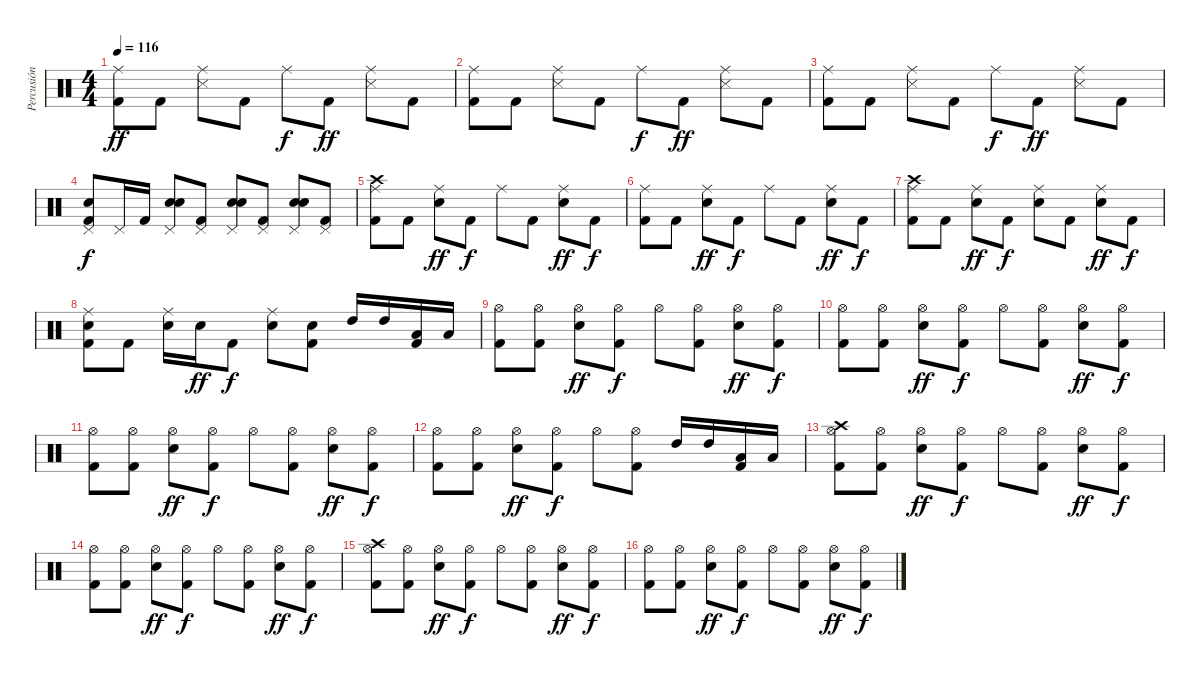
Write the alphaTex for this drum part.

\track ("Percusión" "Percusión") {instrument percussion}
\staff {score}
\articulation defaults
\ts (4 4)
\tempo 116
\clef neutral
\ks c
("Ride (middle)" "Kick (hit) 2").8{dy ff} "Kick (hit) 2".8 ("Ride (middle)" "Snare (side stick) 3").8 "Kick (hit) 2".8 "Ride (middle)".8{dy f} "Kick (hit) 2".8{dy ff} ("Ride (middle)" "Snare (side stick) 3").8 "Kick (hit) 2".8 |
("Ride (middle)" "Kick (hit) 2").8 "Kick (hit) 2".8 ("Ride (middle)" "Snare (side stick) 3").8 "Kick (hit) 2".8 "Ride (middle)".8{dy f} "Kick (hit) 2".8{dy ff} ("Ride (middle)" "Snare (side stick) 3").8 "Kick (hit) 2".8 |
("Ride (middle)" "Kick (hit) 2").8 "Kick (hit) 2".8 ("Ride (middle)" "Snare (side stick) 3").8 "Kick (hit) 2".8 "Ride (middle)".8{dy f} "Kick (hit) 2".8{dy ff} ("Ride (middle)" "Snare (side stick) 3").8 "Kick (hit) 2".8 |
("Hand Clap (hit)" "Pedal Hi-Hat (hit)" "Kick (hit) 2").8{dy f} "Pedal Hi-Hat (hit)".16 "Kick (hit) 2".16 ("Hand Clap (hit)" "Pedal Hi-Hat (hit)" "Snare (hit) 2").8 ("Pedal Hi-Hat (hit)" "Kick (hit) 2").8 ("Hand Clap (hit)" "Pedal Hi-Hat (hit)" "Snare (hit) 2").8 ("Pedal Hi-Hat (hit)" "Kick (hit) 2").8 ("Hand Clap (hit)" "Pedal Hi-Hat (hit)" "Snare (hit) 2").8 ("Pedal Hi-Hat (hit)" "Kick (hit) 2").8 |
("Crash high (hit)" "Ride (middle)" "Kick (hit) 2").8 "Kick (hit) 2".8 ("Ride (middle)" "Snare (hit) 2").8{dy ff} "Kick (hit) 2".8{dy f} "Ride (middle)".8 "Kick (hit) 2".8 ("Ride (middle)" "Snare (hit) 2").8{dy ff} "Kick (hit) 2".8{dy f} |
("Ride (middle)" "Kick (hit) 2").8 "Kick (hit) 2".8 ("Ride (middle)" "Snare (hit) 2").8{dy ff} "Kick (hit) 2".8{dy f} "Ride (middle)".8 "Kick (hit) 2".8 ("Ride (middle)" "Snare (hit) 2").8{dy ff} "Kick (hit) 2".8{dy f} |
("Crash high (hit)" "Ride (middle)" "Kick (hit) 2").8 "Kick (hit) 2".8 ("Ride (middle)" "Snare (hit) 2").8{dy ff} "Kick (hit) 2".8{dy f} ("Ride (middle)" "Snare (hit) 2").8 "Kick (hit) 2".8 ("Ride (middle)" "Snare (hit) 2").8{dy ff} "Kick (hit) 2".8{dy f} |
("Ride (middle)" "Snare (hit) 2" "Kick (hit) 2").8 "Kick (hit) 2".8 ("Ride (middle)" "Snare (hit) 2").16 "Snare (hit) 2".16{dy ff} "Kick (hit) 2".8{dy f} ("Ride (middle)" "Snare (hit) 2").8 ("Snare (hit) 2" "Kick (hit) 2").8 "High Tom (hit)".16 "High Tom (hit)".16 ("Low Tom (hit)" "Kick (hit) 2").16 "Low Tom (hit)".16 |
("Hi-Hat (open)" "Kick (hit) 2").8 ("Hi-Hat (open)" "Kick (hit) 2").8 ("Hi-Hat (open)" "Snare (hit) 2").8{dy ff} ("Hi-Hat (open)" "Kick (hit) 2").8{dy f} "Hi-Hat (open)".8 ("Hi-Hat (open)" "Kick (hit) 2").8 ("Hi-Hat (open)" "Snare (hit) 2").8{dy ff} ("Hi-Hat (open)" "Kick (hit) 2").8{dy f} |
("Hi-Hat (open)" "Kick (hit) 2").8 ("Hi-Hat (open)" "Kick (hit) 2").8 ("Hi-Hat (open)" "Snare (hit) 2").8{dy ff} ("Hi-Hat (open)" "Kick (hit) 2").8{dy f} "Hi-Hat (open)".8 ("Hi-Hat (open)" "Kick (hit) 2").8 ("Hi-Hat (open)" "Snare (hit) 2").8{dy ff} ("Hi-Hat (open)" "Kick (hit) 2").8{dy f} |
("Hi-Hat (open)" "Kick (hit) 2").8 ("Hi-Hat (open)" "Kick (hit) 2").8 ("Hi-Hat (open)" "Snare (hit) 2").8{dy ff} ("Hi-Hat (open)" "Kick (hit) 2").8{dy f} "Hi-Hat (open)".8 ("Hi-Hat (open)" "Kick (hit) 2").8 ("Hi-Hat (open)" "Snare (hit) 2").8{dy ff} ("Hi-Hat (open)" "Kick (hit) 2").8{dy f} |
("Hi-Hat (open)" "Kick (hit) 2").8 ("Hi-Hat (open)" "Kick (hit) 2").8 ("Hi-Hat (open)" "Snare (hit) 2").8{dy ff} ("Hi-Hat (open)" "Kick (hit) 2").8{dy f} "Hi-Hat (open)".8 ("Hi-Hat (open)" "Kick (hit) 2").8 "High Tom (hit)".16 "High Tom (hit)".16 ("Low Tom (hit)" "Kick (hit) 2").16 "Low Tom (hit)".16 |
("Crash high (hit)" "Hi-Hat (open)" "Kick (hit) 2").8 ("Hi-Hat (open)" "Kick (hit) 2").8 ("Hi-Hat (open)" "Snare (hit) 2").8{dy ff} ("Hi-Hat (open)" "Kick (hit) 2").8{dy f} "Hi-Hat (open)".8 ("Hi-Hat (open)" "Kick (hit) 2").8 ("Hi-Hat (open)" "Snare (hit) 2").8{dy ff} ("Hi-Hat (open)" "Kick (hit) 2").8{dy f} |
("Hi-Hat (open)" "Kick (hit) 2").8 ("Hi-Hat (open)" "Kick (hit) 2").8 ("Hi-Hat (open)" "Snare (hit) 2").8{dy ff} ("Hi-Hat (open)" "Kick (hit) 2").8{dy f} "Hi-Hat (open)".8 ("Hi-Hat (open)" "Kick (hit) 2").8 ("Hi-Hat (open)" "Snare (hit) 2").8{dy ff} ("Hi-Hat (open)" "Kick (hit) 2").8{dy f} |
("Crash high (hit)" "Hi-Hat (open)" "Kick (hit) 2").8 ("Hi-Hat (open)" "Kick (hit) 2").8 ("Hi-Hat (open)" "Snare (hit) 2").8{dy ff} ("Hi-Hat (open)" "Kick (hit) 2").8{dy f} "Hi-Hat (open)".8 ("Hi-Hat (open)" "Kick (hit) 2").8 ("Hi-Hat (open)" "Snare (hit) 2").8{dy ff} ("Hi-Hat (open)" "Kick (hit) 2").8{dy f} |
("Hi-Hat (open)" "Kick (hit) 2").8 ("Hi-Hat (open)" "Kick (hit) 2").8 ("Hi-Hat (open)" "Snare (hit) 2").8{dy ff} ("Hi-Hat (open)" "Kick (hit) 2").8{dy f} "Hi-Hat (open)".8 ("Hi-Hat (open)" "Kick (hit) 2").8 ("Hi-Hat (open)" "Snare (hit) 2").8{dy ff} ("Hi-Hat (open)" "Kick (hit) 2").8{dy f}
